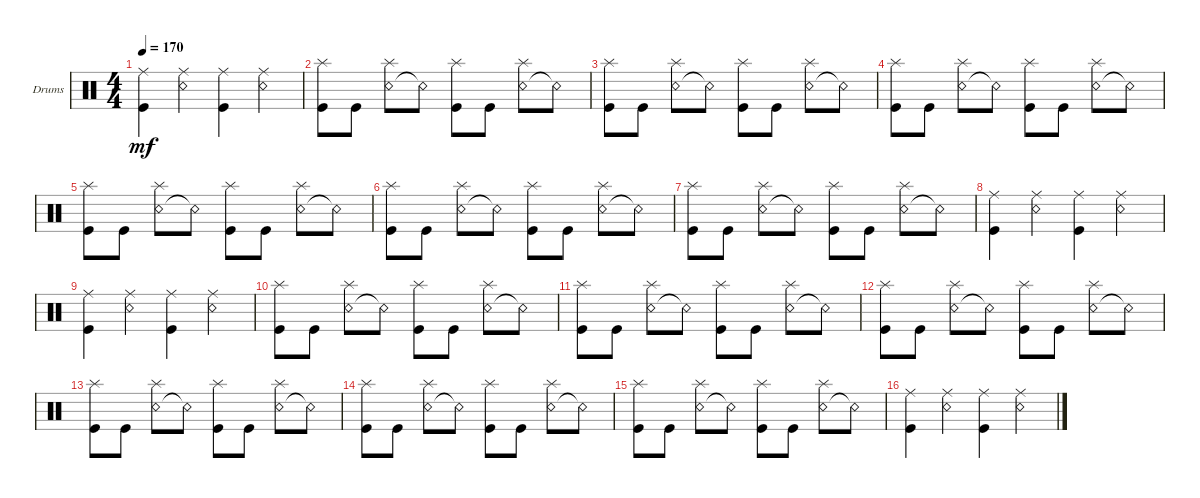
\defaultSystemsLayout 4
\bracketExtendMode groupsimilarinstruments
\firstSystemTrackNameOrientation horizontal
\otherSystemsTrackNameOrientation horizontal
\track ("Drumkit" "Drums") {instrument percussion}
\staff {score}
\articulation defaults
\ts (4 4)
\tempo 170
\clef neutral
\ks c
("Kick (hit)" "Ride (middle)").4{dy mf} ("Snare (rim shot)" "Ride (middle)").4 ("Kick (hit)" "Ride (middle)").4 ("Snare (rim shot)" "Ride (middle)").4 |
("Kick (hit)" "Splash (hit)").8 "Kick (hit)".8 ("Snare (rim shot)" "Splash (hit)").8 "Snare (rim shot)"{t}.8 ("Kick (hit)" "Splash (hit)").8 "Kick (hit)".8 ("Snare (rim shot)" "Splash (hit)").8 "Snare (rim shot)"{t}.8 |
("Kick (hit)" "Splash (hit)").8 "Kick (hit)".8 ("Snare (rim shot)" "Splash (hit)").8 "Snare (rim shot)"{t}.8 ("Kick (hit)" "Splash (hit)").8 "Kick (hit)".8 ("Snare (rim shot)" "Splash (hit)").8 "Snare (rim shot)"{t}.8 |
("Kick (hit)" "Splash (hit)").8 "Kick (hit)".8 ("Snare (rim shot)" "Splash (hit)").8 "Snare (rim shot)"{t}.8 ("Kick (hit)" "Splash (hit)").8 "Kick (hit)".8 ("Snare (rim shot)" "Splash (hit)").8 "Snare (rim shot)"{t}.8 |
("Kick (hit)" "Splash (hit)").8 "Kick (hit)".8 ("Snare (rim shot)" "Splash (hit)").8 "Snare (rim shot)"{t}.8 ("Kick (hit)" "Splash (hit)").8 "Kick (hit)".8 ("Snare (rim shot)" "Splash (hit)").8 "Snare (rim shot)"{t}.8 |
("Kick (hit)" "Splash (hit)").8 "Kick (hit)".8 ("Snare (rim shot)" "Splash (hit)").8 "Snare (rim shot)"{t}.8 ("Kick (hit)" "Splash (hit)").8 "Kick (hit)".8 ("Snare (rim shot)" "Splash (hit)").8 "Snare (rim shot)"{t}.8 |
("Kick (hit)" "Splash (hit)").8 "Kick (hit)".8 ("Snare (rim shot)" "Splash (hit)").8 "Snare (rim shot)"{t}.8 ("Kick (hit)" "Splash (hit)").8 "Kick (hit)".8 ("Snare (rim shot)" "Splash (hit)").8 "Snare (rim shot)"{t}.8 |
("Kick (hit)" "Ride (middle)").4 ("Snare (rim shot)" "Ride (middle)").4 ("Kick (hit)" "Ride (middle)").4 ("Snare (rim shot)" "Ride (middle)").4 |
("Kick (hit)" "Ride (middle)").4 ("Snare (rim shot)" "Ride (middle)").4 ("Kick (hit)" "Ride (middle)").4 ("Snare (rim shot)" "Ride (middle)").4 |
("Kick (hit)" "Splash (hit)").8 "Kick (hit)".8 ("Snare (rim shot)" "Splash (hit)").8 "Snare (rim shot)"{t}.8 ("Kick (hit)" "Splash (hit)").8 "Kick (hit)".8 ("Snare (rim shot)" "Splash (hit)").8 "Snare (rim shot)"{t}.8 |
("Kick (hit)" "Splash (hit)").8 "Kick (hit)".8 ("Snare (rim shot)" "Splash (hit)").8 "Snare (rim shot)"{t}.8 ("Kick (hit)" "Splash (hit)").8 "Kick (hit)".8 ("Snare (rim shot)" "Splash (hit)").8 "Snare (rim shot)"{t}.8 |
("Kick (hit)" "Splash (hit)").8 "Kick (hit)".8 ("Snare (rim shot)" "Splash (hit)").8 "Snare (rim shot)"{t}.8 ("Kick (hit)" "Splash (hit)").8 "Kick (hit)".8 ("Snare (rim shot)" "Splash (hit)").8 "Snare (rim shot)"{t}.8 |
("Kick (hit)" "Splash (hit)").8 "Kick (hit)".8 ("Snare (rim shot)" "Splash (hit)").8 "Snare (rim shot)"{t}.8 ("Kick (hit)" "Splash (hit)").8 "Kick (hit)".8 ("Snare (rim shot)" "Splash (hit)").8 "Snare (rim shot)"{t}.8 |
("Kick (hit)" "Splash (hit)").8 "Kick (hit)".8 ("Snare (rim shot)" "Splash (hit)").8 "Snare (rim shot)"{t}.8 ("Kick (hit)" "Splash (hit)").8 "Kick (hit)".8 ("Snare (rim shot)" "Splash (hit)").8 "Snare (rim shot)"{t}.8 |
("Kick (hit)" "Splash (hit)").8 "Kick (hit)".8 ("Snare (rim shot)" "Splash (hit)").8 "Snare (rim shot)"{t}.8 ("Kick (hit)" "Splash (hit)").8 "Kick (hit)".8 ("Snare (rim shot)" "Splash (hit)").8 "Snare (rim shot)"{t}.8 |
("Kick (hit)" "Ride (middle)").4 ("Snare (rim shot)" "Ride (middle)").4 ("Kick (hit)" "Ride (middle)").4 ("Snare (rim shot)" "Ride (middle)").4
